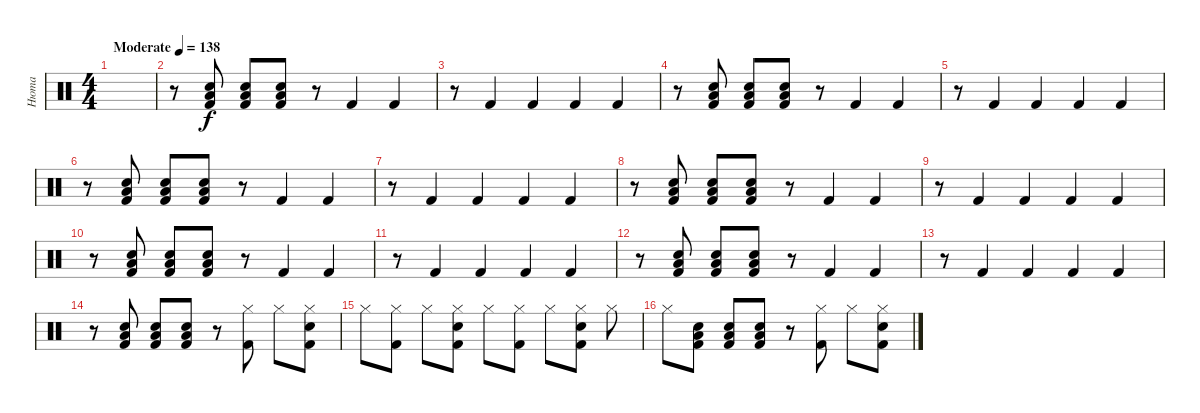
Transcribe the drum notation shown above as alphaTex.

\track ("Нюта" "Нюта") {instrument percussion}
\staff {score}
\articulation defaults
\ts (4 4)
\tempo (138 "Moderate")
\clef neutral
\ks c
|
r.8 ("Kick (hit) 2" "Electric Snare (hit)" "Low Tom (hit)").8 ("Kick (hit) 2" "Electric Snare (hit)" "Low Tom (hit)").8 ("Kick (hit) 2" "Electric Snare (hit)" "Low Tom (hit)").8 r.8 "Kick (hit) 2".4 "Kick (hit) 2".4 |
r.8 "Kick (hit) 2".4 "Kick (hit) 2".4 "Kick (hit) 2".4 "Kick (hit) 2".4 |
r.8 ("Kick (hit) 2" "Electric Snare (hit)" "Low Tom (hit)").8 ("Kick (hit) 2" "Electric Snare (hit)" "Low Tom (hit)").8 ("Kick (hit) 2" "Electric Snare (hit)" "Low Tom (hit)").8 r.8 "Kick (hit) 2".4 "Kick (hit) 2".4 |
r.8 "Kick (hit) 2".4 "Kick (hit) 2".4 "Kick (hit) 2".4 "Kick (hit) 2".4 |
r.8 ("Kick (hit) 2" "Electric Snare (hit)" "Low Tom (hit)").8 ("Kick (hit) 2" "Electric Snare (hit)" "Low Tom (hit)").8 ("Kick (hit) 2" "Electric Snare (hit)" "Low Tom (hit)").8 r.8 "Kick (hit) 2".4 "Kick (hit) 2".4 |
r.8 "Kick (hit) 2".4 "Kick (hit) 2".4 "Kick (hit) 2".4 "Kick (hit) 2".4 |
r.8 ("Kick (hit) 2" "Electric Snare (hit)" "Low Tom (hit)").8 ("Kick (hit) 2" "Electric Snare (hit)" "Low Tom (hit)").8 ("Kick (hit) 2" "Electric Snare (hit)" "Low Tom (hit)").8 r.8 "Kick (hit) 2".4 "Kick (hit) 2".4 |
r.8 "Kick (hit) 2".4 "Kick (hit) 2".4 "Kick (hit) 2".4 "Kick (hit) 2".4 |
r.8 ("Kick (hit) 2" "Electric Snare (hit)" "Low Tom (hit)").8 ("Kick (hit) 2" "Electric Snare (hit)" "Low Tom (hit)").8 ("Kick (hit) 2" "Electric Snare (hit)" "Low Tom (hit)").8 r.8 "Kick (hit) 2".4 "Kick (hit) 2".4 |
r.8 "Kick (hit) 2".4 "Kick (hit) 2".4 "Kick (hit) 2".4 "Kick (hit) 2".4 |
r.8 ("Kick (hit) 2" "Electric Snare (hit)" "Low Tom (hit)").8 ("Kick (hit) 2" "Electric Snare (hit)" "Low Tom (hit)").8 ("Kick (hit) 2" "Electric Snare (hit)" "Low Tom (hit)").8 r.8 "Kick (hit) 2".4 "Kick (hit) 2".4 |
r.8 "Kick (hit) 2".4 "Kick (hit) 2".4 "Kick (hit) 2".4 "Kick (hit) 2".4 |
r.8 ("Kick (hit) 2" "Electric Snare (hit)" "Low Tom (hit)").8 ("Kick (hit) 2" "Electric Snare (hit)" "Low Tom (hit)").8 ("Kick (hit) 2" "Electric Snare (hit)" "Low Tom (hit)").8 r.8 ("Kick (hit) 2" "Hi-Hat (closed)").8 "Hi-Hat (closed)".8 ("Hi-Hat (closed)" "Electric Snare (hit)" "Kick (hit) 2").8 |
"Hi-Hat (closed)".8 ("Kick (hit) 2" "Hi-Hat (closed)").8 "Hi-Hat (closed)".8 ("Hi-Hat (closed)" "Electric Snare (hit)" "Kick (hit) 2").8 "Hi-Hat (closed)".8 ("Kick (hit) 2" "Hi-Hat (closed)").8 "Hi-Hat (closed)".8 ("Hi-Hat (closed)" "Electric Snare (hit)" "Kick (hit) 2").8 "Hi-Hat (closed)".8 |
"Hi-Hat (closed)".8 ("Kick (hit) 2" "Electric Snare (hit)" "Low Tom (hit)").8 ("Kick (hit) 2" "Electric Snare (hit)" "Low Tom (hit)").8 ("Kick (hit) 2" "Electric Snare (hit)" "Low Tom (hit)").8 r.8 ("Kick (hit) 2" "Hi-Hat (closed)").8 "Hi-Hat (closed)".8 ("Hi-Hat (closed)" "Electric Snare (hit)" "Kick (hit) 2").8
